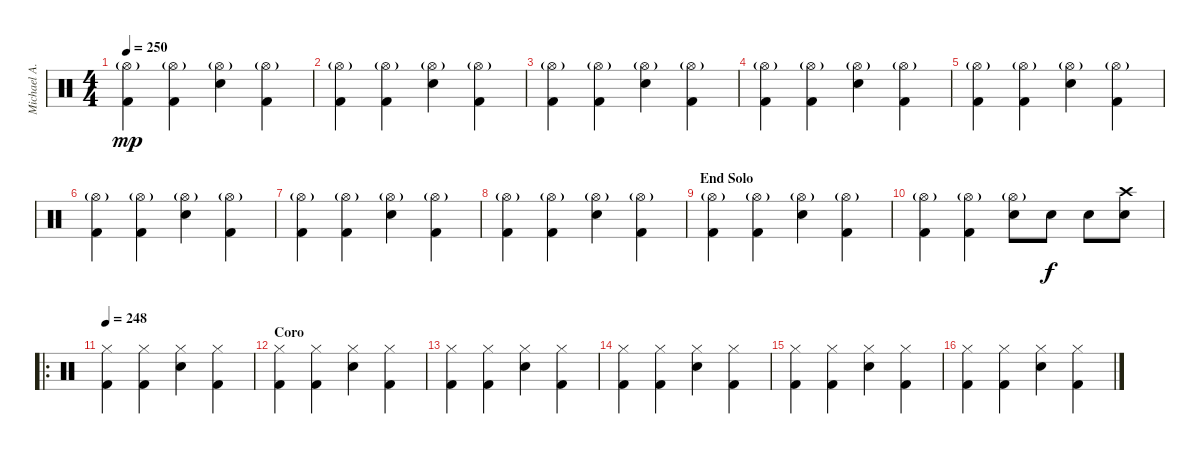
\track ("Michael A." "Michael A.") {instrument percussion}
\staff {score}
\articulation defaults
\ts (4 4)
\tempo 250
\clef neutral
\ks c
("Kick (hit) 2" "Hi-Hat (open)"{g}).4{dy mp} ("Kick (hit) 2" "Hi-Hat (open)"{g}).4 ("Electric Snare (hit)" "Hi-Hat (open)"{g}).4 ("Kick (hit) 2" "Hi-Hat (open)"{g}).4 |
("Kick (hit) 2" "Hi-Hat (open)"{g}).4 ("Kick (hit) 2" "Hi-Hat (open)"{g}).4 ("Electric Snare (hit)" "Hi-Hat (open)"{g}).4 ("Kick (hit) 2" "Hi-Hat (open)"{g}).4 |
("Kick (hit) 2" "Hi-Hat (open)"{g}).4 ("Kick (hit) 2" "Hi-Hat (open)"{g}).4 ("Electric Snare (hit)" "Hi-Hat (open)"{g}).4 ("Kick (hit) 2" "Hi-Hat (open)"{g}).4 |
("Kick (hit) 2" "Hi-Hat (open)"{g}).4 ("Kick (hit) 2" "Hi-Hat (open)"{g}).4 ("Electric Snare (hit)" "Hi-Hat (open)"{g}).4 ("Kick (hit) 2" "Hi-Hat (open)"{g}).4 |
("Kick (hit) 2" "Hi-Hat (open)"{g}).4 ("Kick (hit) 2" "Hi-Hat (open)"{g}).4 ("Electric Snare (hit)" "Hi-Hat (open)"{g}).4 ("Kick (hit) 2" "Hi-Hat (open)"{g}).4 |
("Kick (hit) 2" "Hi-Hat (open)"{g}).4 ("Kick (hit) 2" "Hi-Hat (open)"{g}).4 ("Electric Snare (hit)" "Hi-Hat (open)"{g}).4 ("Kick (hit) 2" "Hi-Hat (open)"{g}).4 |
("Kick (hit) 2" "Hi-Hat (open)"{g}).4 ("Kick (hit) 2" "Hi-Hat (open)"{g}).4 ("Electric Snare (hit)" "Hi-Hat (open)"{g}).4 ("Kick (hit) 2" "Hi-Hat (open)"{g}).4 |
("Kick (hit) 2" "Hi-Hat (open)"{g}).4 ("Kick (hit) 2" "Hi-Hat (open)"{g}).4 ("Electric Snare (hit)" "Hi-Hat (open)"{g}).4 ("Kick (hit) 2" "Hi-Hat (open)"{g}).4 |
\section ("" "End Solo")
("Kick (hit) 2" "Hi-Hat (open)"{g}).4 ("Kick (hit) 2" "Hi-Hat (open)"{g}).4 ("Electric Snare (hit)" "Hi-Hat (open)"{g}).4 ("Kick (hit) 2" "Hi-Hat (open)"{g}).4 |
("Kick (hit) 2" "Hi-Hat (open)"{g}).4 ("Kick (hit) 2" "Hi-Hat (open)"{g}).4 ("Electric Snare (hit)" "Hi-Hat (open)"{g}).8 "Electric Snare (hit)".8{dy f} "Electric Snare (hit)".8 ("Electric Snare (hit)" "Crash high (hit)").8 |
\ro
\tempo 248
("Kick (hit) 2" "Hi-Hat (closed)").4 ("Kick (hit) 2" "Hi-Hat (closed)").4 ("Electric Snare (hit)" "Hi-Hat (closed)").4 ("Kick (hit) 2" "Hi-Hat (closed)").4 |
\section ("" "Coro")
("Kick (hit) 2" "Hi-Hat (closed)").4 ("Kick (hit) 2" "Hi-Hat (closed)").4 ("Electric Snare (hit)" "Hi-Hat (closed)").4 ("Kick (hit) 2" "Hi-Hat (closed)").4 |
("Kick (hit) 2" "Hi-Hat (closed)").4 ("Kick (hit) 2" "Hi-Hat (closed)").4 ("Electric Snare (hit)" "Hi-Hat (closed)").4 ("Kick (hit) 2" "Hi-Hat (closed)").4 |
("Kick (hit) 2" "Hi-Hat (closed)").4 ("Kick (hit) 2" "Hi-Hat (closed)").4 ("Electric Snare (hit)" "Hi-Hat (closed)").4 ("Kick (hit) 2" "Hi-Hat (closed)").4 |
("Kick (hit) 2" "Hi-Hat (closed)").4 ("Kick (hit) 2" "Hi-Hat (closed)").4 ("Electric Snare (hit)" "Hi-Hat (closed)").4 ("Kick (hit) 2" "Hi-Hat (closed)").4 |
("Kick (hit) 2" "Hi-Hat (closed)").4 ("Kick (hit) 2" "Hi-Hat (closed)").4 ("Electric Snare (hit)" "Hi-Hat (closed)").4 ("Kick (hit) 2" "Hi-Hat (closed)").4
